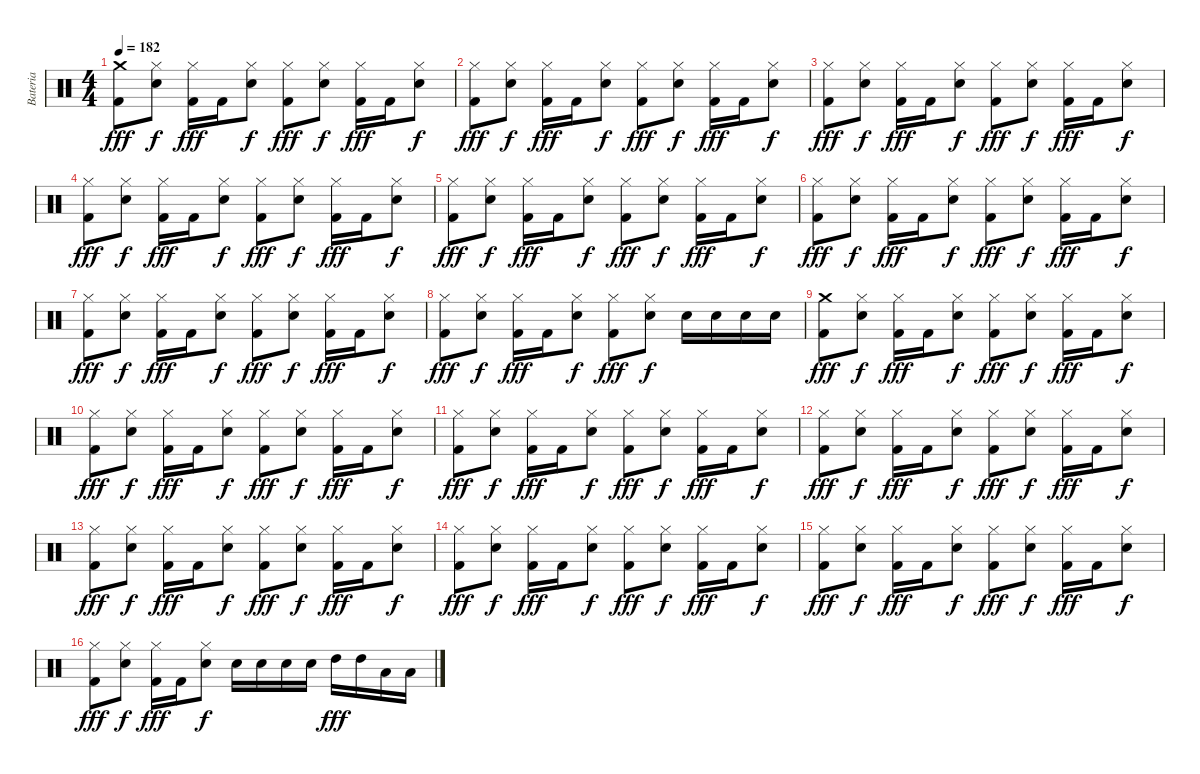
\track ("Bateria" "Bateria") {instrument percussion}
\staff {score}
\articulation defaults
\ts (4 4)
\tempo 182
\clef neutral
\ks c
("Crash medium (hit)" "Kick (hit) 2").8{dy fff} ("Hi-Hat (closed)" "Electric Snare (hit)").8{dy f} ("Hi-Hat (closed)" "Kick (hit) 2").16{dy fff} "Kick (hit) 2".16 ("Hi-Hat (closed)" "Electric Snare (hit)").8{dy f} ("Hi-Hat (closed)" "Kick (hit) 2").8{dy fff} ("Hi-Hat (closed)" "Electric Snare (hit)").8{dy f} ("Hi-Hat (closed)" "Kick (hit) 2").16{dy fff} "Kick (hit) 2".16 ("Hi-Hat (closed)" "Electric Snare (hit)").8{dy f} |
("Hi-Hat (closed)" "Kick (hit) 2").8{dy fff} ("Hi-Hat (closed)" "Electric Snare (hit)").8{dy f} ("Hi-Hat (closed)" "Kick (hit) 2").16{dy fff} "Kick (hit) 2".16 ("Hi-Hat (closed)" "Electric Snare (hit)").8{dy f} ("Hi-Hat (closed)" "Kick (hit) 2").8{dy fff} ("Hi-Hat (closed)" "Electric Snare (hit)").8{dy f} ("Hi-Hat (closed)" "Kick (hit) 2").16{dy fff} "Kick (hit) 2".16 ("Hi-Hat (closed)" "Electric Snare (hit)").8{dy f} |
("Hi-Hat (closed)" "Kick (hit) 2").8{dy fff} ("Hi-Hat (closed)" "Electric Snare (hit)").8{dy f} ("Hi-Hat (closed)" "Kick (hit) 2").16{dy fff} "Kick (hit) 2".16 ("Hi-Hat (closed)" "Electric Snare (hit)").8{dy f} ("Hi-Hat (closed)" "Kick (hit) 2").8{dy fff} ("Hi-Hat (closed)" "Electric Snare (hit)").8{dy f} ("Hi-Hat (closed)" "Kick (hit) 2").16{dy fff} "Kick (hit) 2".16 ("Hi-Hat (closed)" "Electric Snare (hit)").8{dy f} |
("Hi-Hat (closed)" "Kick (hit) 2").8{dy fff} ("Hi-Hat (closed)" "Electric Snare (hit)").8{dy f} ("Hi-Hat (closed)" "Kick (hit) 2").16{dy fff} "Kick (hit) 2".16 ("Hi-Hat (closed)" "Electric Snare (hit)").8{dy f} ("Hi-Hat (closed)" "Kick (hit) 2").8{dy fff} ("Hi-Hat (closed)" "Electric Snare (hit)").8{dy f} ("Hi-Hat (closed)" "Kick (hit) 2").16{dy fff} "Kick (hit) 2".16 ("Hi-Hat (closed)" "Electric Snare (hit)").8{dy f} |
("Hi-Hat (closed)" "Kick (hit) 2").8{dy fff} ("Hi-Hat (closed)" "Electric Snare (hit)").8{dy f} ("Hi-Hat (closed)" "Kick (hit) 2").16{dy fff} "Kick (hit) 2".16 ("Hi-Hat (closed)" "Electric Snare (hit)").8{dy f} ("Hi-Hat (closed)" "Kick (hit) 2").8{dy fff} ("Hi-Hat (closed)" "Electric Snare (hit)").8{dy f} ("Hi-Hat (closed)" "Kick (hit) 2").16{dy fff} "Kick (hit) 2".16 ("Hi-Hat (closed)" "Electric Snare (hit)").8{dy f} |
("Hi-Hat (closed)" "Kick (hit) 2").8{dy fff} ("Hi-Hat (closed)" "Electric Snare (hit)").8{dy f} ("Hi-Hat (closed)" "Kick (hit) 2").16{dy fff} "Kick (hit) 2".16 ("Hi-Hat (closed)" "Electric Snare (hit)").8{dy f} ("Hi-Hat (closed)" "Kick (hit) 2").8{dy fff} ("Hi-Hat (closed)" "Electric Snare (hit)").8{dy f} ("Hi-Hat (closed)" "Kick (hit) 2").16{dy fff} "Kick (hit) 2".16 ("Hi-Hat (closed)" "Electric Snare (hit)").8{dy f} |
("Hi-Hat (closed)" "Kick (hit) 2").8{dy fff} ("Hi-Hat (closed)" "Electric Snare (hit)").8{dy f} ("Hi-Hat (closed)" "Kick (hit) 2").16{dy fff} "Kick (hit) 2".16 ("Hi-Hat (closed)" "Electric Snare (hit)").8{dy f} ("Hi-Hat (closed)" "Kick (hit) 2").8{dy fff} ("Hi-Hat (closed)" "Electric Snare (hit)").8{dy f} ("Hi-Hat (closed)" "Kick (hit) 2").16{dy fff} "Kick (hit) 2".16 ("Hi-Hat (closed)" "Electric Snare (hit)").8{dy f} |
("Hi-Hat (closed)" "Kick (hit) 2").8{dy fff} ("Hi-Hat (closed)" "Electric Snare (hit)").8{dy f} ("Hi-Hat (closed)" "Kick (hit) 2").16{dy fff} "Kick (hit) 2".16 ("Hi-Hat (closed)" "Electric Snare (hit)").8{dy f} ("Hi-Hat (closed)" "Kick (hit) 2").8{dy fff} ("Hi-Hat (closed)" "Electric Snare (hit)").8{dy f} "Electric Snare (hit)".16 "Electric Snare (hit)".16 "Electric Snare (hit)".16 "Electric Snare (hit)".16 |
("Crash medium (hit)" "Kick (hit) 2").8{dy fff} ("Hi-Hat (closed)" "Electric Snare (hit)").8{dy f} ("Hi-Hat (closed)" "Kick (hit) 2").16{dy fff} "Kick (hit) 2".16 ("Hi-Hat (closed)" "Electric Snare (hit)").8{dy f} ("Hi-Hat (closed)" "Kick (hit) 2").8{dy fff} ("Hi-Hat (closed)" "Electric Snare (hit)").8{dy f} ("Hi-Hat (closed)" "Kick (hit) 2").16{dy fff} "Kick (hit) 2".16 ("Hi-Hat (closed)" "Electric Snare (hit)").8{dy f} |
("Hi-Hat (closed)" "Kick (hit) 2").8{dy fff} ("Hi-Hat (closed)" "Electric Snare (hit)").8{dy f} ("Hi-Hat (closed)" "Kick (hit) 2").16{dy fff} "Kick (hit) 2".16 ("Hi-Hat (closed)" "Electric Snare (hit)").8{dy f} ("Hi-Hat (closed)" "Kick (hit) 2").8{dy fff} ("Hi-Hat (closed)" "Electric Snare (hit)").8{dy f} ("Hi-Hat (closed)" "Kick (hit) 2").16{dy fff} "Kick (hit) 2".16 ("Hi-Hat (closed)" "Electric Snare (hit)").8{dy f} |
("Hi-Hat (closed)" "Kick (hit) 2").8{dy fff} ("Hi-Hat (closed)" "Electric Snare (hit)").8{dy f} ("Hi-Hat (closed)" "Kick (hit) 2").16{dy fff} "Kick (hit) 2".16 ("Hi-Hat (closed)" "Electric Snare (hit)").8{dy f} ("Hi-Hat (closed)" "Kick (hit) 2").8{dy fff} ("Hi-Hat (closed)" "Electric Snare (hit)").8{dy f} ("Hi-Hat (closed)" "Kick (hit) 2").16{dy fff} "Kick (hit) 2".16 ("Hi-Hat (closed)" "Electric Snare (hit)").8{dy f} |
("Hi-Hat (closed)" "Kick (hit) 2").8{dy fff} ("Hi-Hat (closed)" "Electric Snare (hit)").8{dy f} ("Hi-Hat (closed)" "Kick (hit) 2").16{dy fff} "Kick (hit) 2".16 ("Hi-Hat (closed)" "Electric Snare (hit)").8{dy f} ("Hi-Hat (closed)" "Kick (hit) 2").8{dy fff} ("Hi-Hat (closed)" "Electric Snare (hit)").8{dy f} ("Hi-Hat (closed)" "Kick (hit) 2").16{dy fff} "Kick (hit) 2".16 ("Hi-Hat (closed)" "Electric Snare (hit)").8{dy f} |
("Hi-Hat (closed)" "Kick (hit) 2").8{dy fff} ("Hi-Hat (closed)" "Electric Snare (hit)").8{dy f} ("Hi-Hat (closed)" "Kick (hit) 2").16{dy fff} "Kick (hit) 2".16 ("Hi-Hat (closed)" "Electric Snare (hit)").8{dy f} ("Hi-Hat (closed)" "Kick (hit) 2").8{dy fff} ("Hi-Hat (closed)" "Electric Snare (hit)").8{dy f} ("Hi-Hat (closed)" "Kick (hit) 2").16{dy fff} "Kick (hit) 2".16 ("Hi-Hat (closed)" "Electric Snare (hit)").8{dy f} |
("Hi-Hat (closed)" "Kick (hit) 2").8{dy fff} ("Hi-Hat (closed)" "Electric Snare (hit)").8{dy f} ("Hi-Hat (closed)" "Kick (hit) 2").16{dy fff} "Kick (hit) 2".16 ("Hi-Hat (closed)" "Electric Snare (hit)").8{dy f} ("Hi-Hat (closed)" "Kick (hit) 2").8{dy fff} ("Hi-Hat (closed)" "Electric Snare (hit)").8{dy f} ("Hi-Hat (closed)" "Kick (hit) 2").16{dy fff} "Kick (hit) 2".16 ("Hi-Hat (closed)" "Electric Snare (hit)").8{dy f} |
("Hi-Hat (closed)" "Kick (hit) 2").8{dy fff} ("Hi-Hat (closed)" "Electric Snare (hit)").8{dy f} ("Hi-Hat (closed)" "Kick (hit) 2").16{dy fff} "Kick (hit) 2".16 ("Hi-Hat (closed)" "Electric Snare (hit)").8{dy f} ("Hi-Hat (closed)" "Kick (hit) 2").8{dy fff} ("Hi-Hat (closed)" "Electric Snare (hit)").8{dy f} ("Hi-Hat (closed)" "Kick (hit) 2").16{dy fff} "Kick (hit) 2".16 ("Hi-Hat (closed)" "Electric Snare (hit)").8{dy f} |
("Hi-Hat (closed)" "Kick (hit) 2").8{dy fff} ("Hi-Hat (closed)" "Electric Snare (hit)").8{dy f} ("Hi-Hat (closed)" "Kick (hit) 2").16{dy fff} "Kick (hit) 2".16 ("Hi-Hat (closed)" "Electric Snare (hit)").8{dy f} "Electric Snare (hit)".16 "Electric Snare (hit)".16 "Electric Snare (hit)".16 "Electric Snare (hit)".16 "High Tom (hit)".16{dy fff} "High Tom (hit)".16 "Low Tom (hit)".16 "Low Tom (hit)".16
